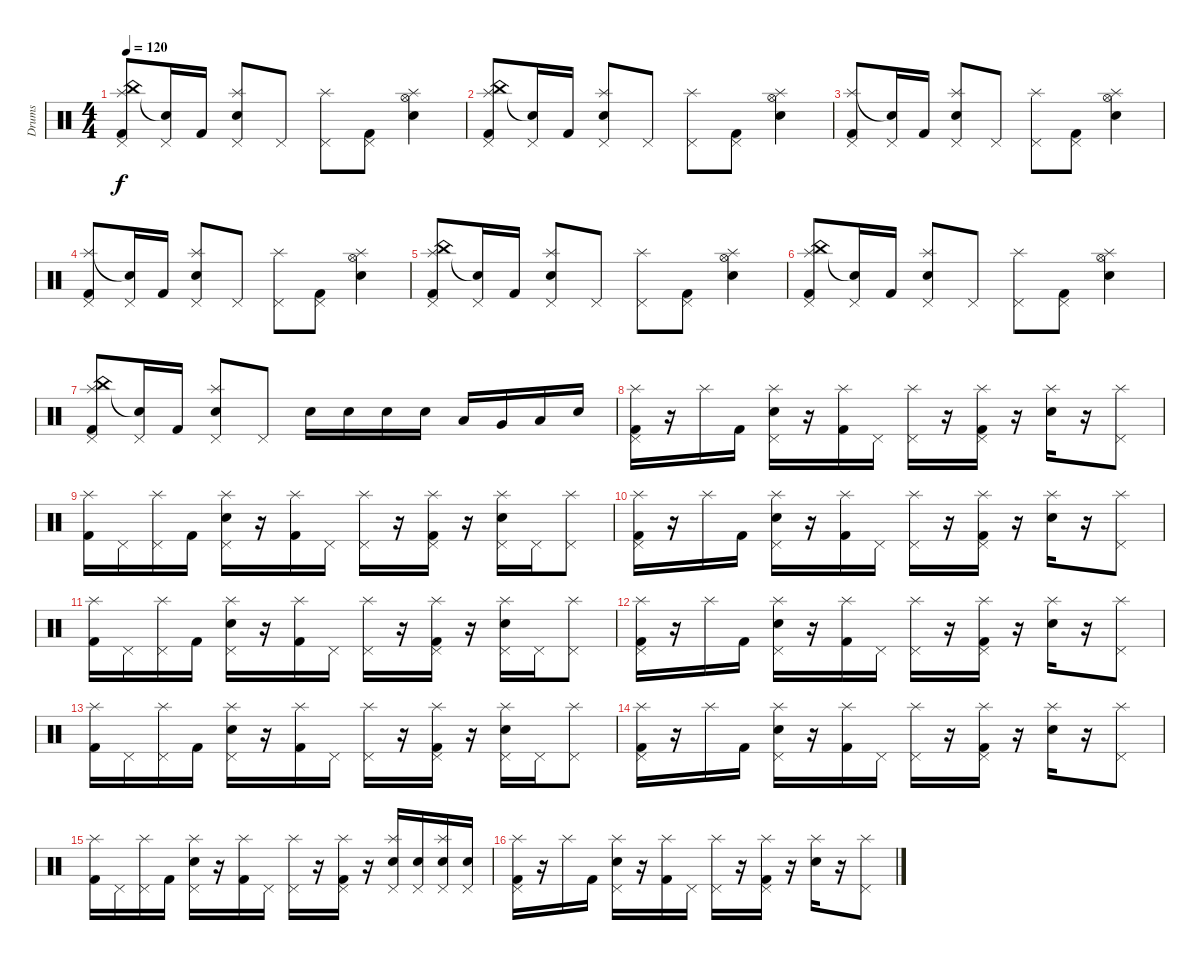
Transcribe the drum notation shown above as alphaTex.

\track ("Drums" "Drums") {instrument percussion}
\staff {score}
\articulation defaults
\ts (4 4)
\tempo 120
\clef neutral
\ks c
("Pedal Hi-Hat (hit)" "Splash (hit)" "China (hit)" "Kick (hit) 2").8{dy f} ("Pedal Hi-Hat (hit)" "Snare (hit)"{t}).16 "Kick (hit) 2".16 ("Pedal Hi-Hat (hit)" "Splash (hit)" "Electric Snare (hit)").8 "Pedal Hi-Hat (hit)".8 ("Pedal Hi-Hat (hit)" "Splash (hit)").8 ("Pedal Hi-Hat (hit)" "Kick (hit) 2").8 ("Hi-Hat (open)" "Splash (hit)" "Electric Snare (hit)").4 |
("Pedal Hi-Hat (hit)" "Splash (hit)" "China (hit)" "Kick (hit) 2").8 ("Pedal Hi-Hat (hit)" "Snare (hit)"{t}).16 "Kick (hit) 2".16 ("Pedal Hi-Hat (hit)" "Splash (hit)" "Electric Snare (hit)").8 "Pedal Hi-Hat (hit)".8 ("Pedal Hi-Hat (hit)" "Splash (hit)").8 ("Pedal Hi-Hat (hit)" "Kick (hit) 2").8 ("Hi-Hat (open)" "Splash (hit)" "Electric Snare (hit)").4 |
("Pedal Hi-Hat (hit)" "Splash (hit)" "Kick (hit) 2").8 ("Pedal Hi-Hat (hit)" "Snare (hit)"{t}).16 "Kick (hit) 2".16 ("Pedal Hi-Hat (hit)" "Splash (hit)" "Electric Snare (hit)").8 "Pedal Hi-Hat (hit)".8 ("Pedal Hi-Hat (hit)" "Splash (hit)").8 ("Pedal Hi-Hat (hit)" "Kick (hit) 2").8 ("Hi-Hat (open)" "Splash (hit)" "Electric Snare (hit)").4 |
("Pedal Hi-Hat (hit)" "Splash (hit)" "Kick (hit) 2").8 ("Pedal Hi-Hat (hit)" "Snare (hit)"{t}).16 "Kick (hit) 2".16 ("Pedal Hi-Hat (hit)" "Splash (hit)" "Electric Snare (hit)").8 "Pedal Hi-Hat (hit)".8 ("Pedal Hi-Hat (hit)" "Splash (hit)").8 ("Pedal Hi-Hat (hit)" "Kick (hit) 2").8 ("Hi-Hat (open)" "Splash (hit)" "Electric Snare (hit)").4 |
("Pedal Hi-Hat (hit)" "Splash (hit)" "China (hit)" "Kick (hit) 2").8 ("Pedal Hi-Hat (hit)" "Snare (hit)"{t}).16 "Kick (hit) 2".16 ("Pedal Hi-Hat (hit)" "Splash (hit)" "Electric Snare (hit)").8 "Pedal Hi-Hat (hit)".8 ("Pedal Hi-Hat (hit)" "Splash (hit)").8 ("Pedal Hi-Hat (hit)" "Kick (hit) 2").8 ("Hi-Hat (open)" "Splash (hit)" "Electric Snare (hit)").4 |
("Pedal Hi-Hat (hit)" "Splash (hit)" "China (hit)" "Kick (hit) 2").8 ("Pedal Hi-Hat (hit)" "Snare (hit)"{t}).16 "Kick (hit) 2".16 ("Pedal Hi-Hat (hit)" "Splash (hit)" "Electric Snare (hit)").8 "Pedal Hi-Hat (hit)".8 ("Pedal Hi-Hat (hit)" "Splash (hit)").8 ("Pedal Hi-Hat (hit)" "Kick (hit) 2").8 ("Hi-Hat (open)" "Splash (hit)" "Electric Snare (hit)").4 |
("Pedal Hi-Hat (hit)" "Splash (hit)" "China (hit)" "Kick (hit) 2").8 ("Pedal Hi-Hat (hit)" "Snare (hit)"{t}).16 "Kick (hit) 2".16 ("Pedal Hi-Hat (hit)" "Splash (hit)" "Electric Snare (hit)").8 "Pedal Hi-Hat (hit)".8 "Electric Snare (hit)".16 "Electric Snare (hit)".16 "Electric Snare (hit)".16 "Electric Snare (hit)".16 "Low Tom (hit)".16 "Very Low Tom (hit)".16 "Low Floor Tom (hit)".16 "Electric Snare (hit)".16 |
("Splash (hit)" "Pedal Hi-Hat (hit)" "Kick (hit) 2").16 r.16 "Splash (hit)".16 "Kick (hit) 2".16 ("Splash (hit)" "Pedal Hi-Hat (hit)" "Electric Snare (hit)").16 r.16 ("Splash (hit)" "Kick (hit) 2").16 "Pedal Hi-Hat (hit)".16 ("Splash (hit)" "Pedal Hi-Hat (hit)").16 r.16 ("Splash (hit)" "Pedal Hi-Hat (hit)" "Kick (hit) 2").16 r.16 ("Splash (hit)" "Electric Snare (hit)").16 r.16 ("Splash (hit)" "Pedal Hi-Hat (hit)").8 |
("Splash (hit)" "Kick (hit) 2").16 "Pedal Hi-Hat (hit)".16 ("Splash (hit)" "Pedal Hi-Hat (hit)").16 "Kick (hit) 2".16 ("Splash (hit)" "Pedal Hi-Hat (hit)" "Electric Snare (hit)").16 r.16 ("Splash (hit)" "Kick (hit) 2").16 "Pedal Hi-Hat (hit)".16 ("Splash (hit)" "Pedal Hi-Hat (hit)").16 r.16 ("Splash (hit)" "Pedal Hi-Hat (hit)" "Kick (hit) 2").16 r.16 ("Splash (hit)" "Pedal Hi-Hat (hit)" "Electric Snare (hit)").16 "Pedal Hi-Hat (hit)".16 ("Splash (hit)" "Pedal Hi-Hat (hit)").8 |
("Splash (hit)" "Pedal Hi-Hat (hit)" "Kick (hit) 2").16 r.16 "Splash (hit)".16 "Kick (hit) 2".16 ("Splash (hit)" "Pedal Hi-Hat (hit)" "Electric Snare (hit)").16 r.16 ("Splash (hit)" "Kick (hit) 2").16 "Pedal Hi-Hat (hit)".16 ("Splash (hit)" "Pedal Hi-Hat (hit)").16 r.16 ("Splash (hit)" "Pedal Hi-Hat (hit)" "Kick (hit) 2").16 r.16 ("Splash (hit)" "Electric Snare (hit)").16 r.16 ("Splash (hit)" "Pedal Hi-Hat (hit)").8 |
("Splash (hit)" "Kick (hit) 2").16 "Pedal Hi-Hat (hit)".16 ("Splash (hit)" "Pedal Hi-Hat (hit)").16 "Kick (hit) 2".16 ("Splash (hit)" "Pedal Hi-Hat (hit)" "Electric Snare (hit)").16 r.16 ("Splash (hit)" "Kick (hit) 2").16 "Pedal Hi-Hat (hit)".16 ("Splash (hit)" "Pedal Hi-Hat (hit)").16 r.16 ("Splash (hit)" "Pedal Hi-Hat (hit)" "Kick (hit) 2").16 r.16 ("Splash (hit)" "Pedal Hi-Hat (hit)" "Electric Snare (hit)").16 "Pedal Hi-Hat (hit)".16 ("Splash (hit)" "Pedal Hi-Hat (hit)").8 |
("Splash (hit)" "Pedal Hi-Hat (hit)" "Kick (hit) 2").16 r.16 "Splash (hit)".16 "Kick (hit) 2".16 ("Splash (hit)" "Pedal Hi-Hat (hit)" "Electric Snare (hit)").16 r.16 ("Splash (hit)" "Kick (hit) 2").16 "Pedal Hi-Hat (hit)".16 ("Splash (hit)" "Pedal Hi-Hat (hit)").16 r.16 ("Splash (hit)" "Pedal Hi-Hat (hit)" "Kick (hit) 2").16 r.16 ("Splash (hit)" "Electric Snare (hit)").16 r.16 ("Splash (hit)" "Pedal Hi-Hat (hit)").8 |
("Splash (hit)" "Kick (hit) 2").16 "Pedal Hi-Hat (hit)".16 ("Splash (hit)" "Pedal Hi-Hat (hit)").16 "Kick (hit) 2".16 ("Splash (hit)" "Pedal Hi-Hat (hit)" "Electric Snare (hit)").16 r.16 ("Splash (hit)" "Kick (hit) 2").16 "Pedal Hi-Hat (hit)".16 ("Splash (hit)" "Pedal Hi-Hat (hit)").16 r.16 ("Splash (hit)" "Pedal Hi-Hat (hit)" "Kick (hit) 2").16 r.16 ("Splash (hit)" "Pedal Hi-Hat (hit)" "Electric Snare (hit)").16 "Pedal Hi-Hat (hit)".16 ("Splash (hit)" "Pedal Hi-Hat (hit)").8 |
("Splash (hit)" "Pedal Hi-Hat (hit)" "Kick (hit) 2").16 r.16 "Splash (hit)".16 "Kick (hit) 2".16 ("Splash (hit)" "Pedal Hi-Hat (hit)" "Electric Snare (hit)").16 r.16 ("Splash (hit)" "Kick (hit) 2").16 "Pedal Hi-Hat (hit)".16 ("Splash (hit)" "Pedal Hi-Hat (hit)").16 r.16 ("Splash (hit)" "Pedal Hi-Hat (hit)" "Kick (hit) 2").16 r.16 ("Splash (hit)" "Electric Snare (hit)").16 r.16 ("Splash (hit)" "Pedal Hi-Hat (hit)").8 |
("Splash (hit)" "Kick (hit) 2").16 "Pedal Hi-Hat (hit)".16 ("Splash (hit)" "Pedal Hi-Hat (hit)").16 "Kick (hit) 2".16 ("Splash (hit)" "Pedal Hi-Hat (hit)" "Electric Snare (hit)").16 r.16 ("Splash (hit)" "Kick (hit) 2").16 "Pedal Hi-Hat (hit)".16 ("Splash (hit)" "Pedal Hi-Hat (hit)").16 r.16 ("Splash (hit)" "Pedal Hi-Hat (hit)" "Kick (hit) 2").16 r.16 ("Splash (hit)" "Pedal Hi-Hat (hit)" "Electric Snare (hit)").16 ("Pedal Hi-Hat (hit)" "Electric Snare (hit)").16 ("Splash (hit)" "Pedal Hi-Hat (hit)" "Electric Snare (hit)").16 ("Pedal Hi-Hat (hit)" "Electric Snare (hit)").16 |
("Splash (hit)" "Pedal Hi-Hat (hit)" "Kick (hit) 2").16 r.16 "Splash (hit)".16 "Kick (hit) 2".16 ("Splash (hit)" "Pedal Hi-Hat (hit)" "Electric Snare (hit)").16 r.16 ("Splash (hit)" "Kick (hit) 2").16 "Pedal Hi-Hat (hit)".16 ("Splash (hit)" "Pedal Hi-Hat (hit)").16 r.16 ("Splash (hit)" "Pedal Hi-Hat (hit)" "Kick (hit) 2").16 r.16 ("Splash (hit)" "Electric Snare (hit)").16 r.16 ("Splash (hit)" "Pedal Hi-Hat (hit)").8
